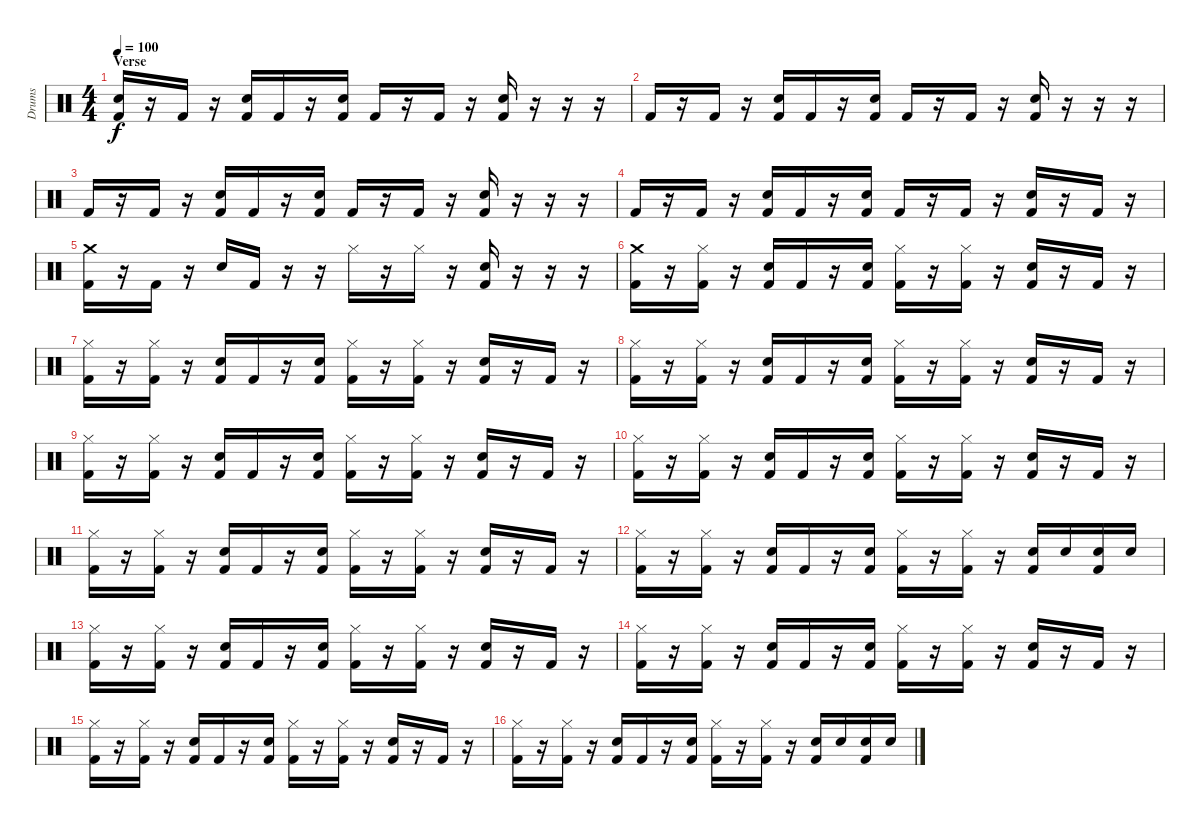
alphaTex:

\track ("Drums" "Drums") {instrument percussion}
\staff {score}
\articulation defaults
\ts (4 4)
\section ("" "Verse")
\tempo 100
\clef neutral
\ks c
("Snare (hit) 2" "Kick (hit) 2").16{dy f} r.16 "Kick (hit) 2".16 r.16 ("Snare (hit) 2" "Kick (hit) 2").16 "Kick (hit) 2".16 r.16 ("Snare (hit) 2" "Kick (hit) 2").16 "Kick (hit) 2".16 r.16 "Kick (hit) 2".16 r.16 ("Snare (hit) 2" "Kick (hit) 2").16 r.16 r.16 r.16 |
"Kick (hit) 2".16 r.16 "Kick (hit) 2".16 r.16 ("Snare (hit) 2" "Kick (hit) 2").16 "Kick (hit) 2".16 r.16 ("Snare (hit) 2" "Kick (hit) 2").16 "Kick (hit) 2".16 r.16 "Kick (hit) 2".16 r.16 ("Snare (hit) 2" "Kick (hit) 2").16 r.16 r.16 r.16 |
"Kick (hit) 2".16 r.16 "Kick (hit) 2".16 r.16 ("Snare (hit) 2" "Kick (hit) 2").16 "Kick (hit) 2".16 r.16 ("Snare (hit) 2" "Kick (hit) 2").16 "Kick (hit) 2".16 r.16 "Kick (hit) 2".16 r.16 ("Snare (hit) 2" "Kick (hit) 2").16 r.16 r.16 r.16 |
"Kick (hit) 2".16 r.16 "Kick (hit) 2".16 r.16 ("Snare (hit) 2" "Kick (hit) 2").16 "Kick (hit) 2".16 r.16 ("Snare (hit) 2" "Kick (hit) 2").16 "Kick (hit) 2".16 r.16 "Kick (hit) 2".16 r.16 ("Snare (hit) 2" "Kick (hit) 2").16 r.16 "Kick (hit) 2".16 r.16 |
("Crash medium (hit)" "Kick (hit) 2").16 r.16 "Kick (hit) 2".16 r.16 "Snare (hit) 2".16 "Kick (hit) 2".16 r.16 r.16 "Hi-Hat (closed)".16 r.16 "Hi-Hat (closed)".16 r.16 ("Snare (hit) 2" "Kick (hit) 2").16 r.16 r.16 r.16 |
("Crash medium (hit)" "Kick (hit) 2").16 r.16 ("Hi-Hat (closed)" "Kick (hit) 2").16 r.16 ("Snare (hit) 2" "Kick (hit) 2").16 "Kick (hit) 2".16 r.16 ("Snare (hit) 2" "Kick (hit) 2").16 ("Hi-Hat (closed)" "Kick (hit) 2").16 r.16 ("Hi-Hat (closed)" "Kick (hit) 2").16 r.16 ("Snare (hit) 2" "Kick (hit) 2").16 r.16 "Kick (hit) 2".16 r.16 |
("Hi-Hat (closed)" "Kick (hit) 2").16 r.16 ("Hi-Hat (closed)" "Kick (hit) 2").16 r.16 ("Snare (hit) 2" "Kick (hit) 2").16 "Kick (hit) 2".16 r.16 ("Snare (hit) 2" "Kick (hit) 2").16 ("Hi-Hat (closed)" "Kick (hit) 2").16 r.16 ("Hi-Hat (closed)" "Kick (hit) 2").16 r.16 ("Snare (hit) 2" "Kick (hit) 2").16 r.16 "Kick (hit) 2".16 r.16 |
("Hi-Hat (closed)" "Kick (hit) 2").16 r.16 ("Hi-Hat (closed)" "Kick (hit) 2").16 r.16 ("Snare (hit) 2" "Kick (hit) 2").16 "Kick (hit) 2".16 r.16 ("Snare (hit) 2" "Kick (hit) 2").16 ("Hi-Hat (closed)" "Kick (hit) 2").16 r.16 ("Hi-Hat (closed)" "Kick (hit) 2").16 r.16 ("Snare (hit) 2" "Kick (hit) 2").16 r.16 "Kick (hit) 2".16 r.16 |
("Hi-Hat (closed)" "Kick (hit) 2").16 r.16 ("Hi-Hat (closed)" "Kick (hit) 2").16 r.16 ("Snare (hit) 2" "Kick (hit) 2").16 "Kick (hit) 2".16 r.16 ("Snare (hit) 2" "Kick (hit) 2").16 ("Hi-Hat (closed)" "Kick (hit) 2").16 r.16 ("Hi-Hat (closed)" "Kick (hit) 2").16 r.16 ("Snare (hit) 2" "Kick (hit) 2").16 r.16 "Kick (hit) 2".16 r.16 |
("Hi-Hat (closed)" "Kick (hit) 2").16 r.16 ("Hi-Hat (closed)" "Kick (hit) 2").16 r.16 ("Snare (hit) 2" "Kick (hit) 2").16 "Kick (hit) 2".16 r.16 ("Snare (hit) 2" "Kick (hit) 2").16 ("Hi-Hat (closed)" "Kick (hit) 2").16 r.16 ("Hi-Hat (closed)" "Kick (hit) 2").16 r.16 ("Snare (hit) 2" "Kick (hit) 2").16 r.16 "Kick (hit) 2".16 r.16 |
("Hi-Hat (closed)" "Kick (hit) 2").16 r.16 ("Hi-Hat (closed)" "Kick (hit) 2").16 r.16 ("Snare (hit) 2" "Kick (hit) 2").16 "Kick (hit) 2".16 r.16 ("Snare (hit) 2" "Kick (hit) 2").16 ("Hi-Hat (closed)" "Kick (hit) 2").16 r.16 ("Hi-Hat (closed)" "Kick (hit) 2").16 r.16 ("Snare (hit) 2" "Kick (hit) 2").16 r.16 "Kick (hit) 2".16 r.16 |
("Hi-Hat (closed)" "Kick (hit) 2").16 r.16 ("Hi-Hat (closed)" "Kick (hit) 2").16 r.16 ("Snare (hit) 2" "Kick (hit) 2").16 "Kick (hit) 2".16 r.16 ("Snare (hit) 2" "Kick (hit) 2").16 ("Hi-Hat (closed)" "Kick (hit) 2").16 r.16 ("Hi-Hat (closed)" "Kick (hit) 2").16 r.16 ("Snare (hit) 2" "Kick (hit) 2").16 "Snare (hit) 2".16 ("Snare (hit) 2" "Kick (hit) 2").16 "Snare (hit) 2".16 |
("Hi-Hat (closed)" "Kick (hit) 2").16 r.16 ("Hi-Hat (closed)" "Kick (hit) 2").16 r.16 ("Snare (hit) 2" "Kick (hit) 2").16 "Kick (hit) 2".16 r.16 ("Snare (hit) 2" "Kick (hit) 2").16 ("Hi-Hat (closed)" "Kick (hit) 2").16 r.16 ("Hi-Hat (closed)" "Kick (hit) 2").16 r.16 ("Snare (hit) 2" "Kick (hit) 2").16 r.16 "Kick (hit) 2".16 r.16 |
("Hi-Hat (closed)" "Kick (hit) 2").16 r.16 ("Hi-Hat (closed)" "Kick (hit) 2").16 r.16 ("Snare (hit) 2" "Kick (hit) 2").16 "Kick (hit) 2".16 r.16 ("Snare (hit) 2" "Kick (hit) 2").16 ("Hi-Hat (closed)" "Kick (hit) 2").16 r.16 ("Hi-Hat (closed)" "Kick (hit) 2").16 r.16 ("Snare (hit) 2" "Kick (hit) 2").16 r.16 "Kick (hit) 2".16 r.16 |
("Hi-Hat (closed)" "Kick (hit) 2").16 r.16 ("Hi-Hat (closed)" "Kick (hit) 2").16 r.16 ("Snare (hit) 2" "Kick (hit) 2").16 "Kick (hit) 2".16 r.16 ("Snare (hit) 2" "Kick (hit) 2").16 ("Hi-Hat (closed)" "Kick (hit) 2").16 r.16 ("Hi-Hat (closed)" "Kick (hit) 2").16 r.16 ("Snare (hit) 2" "Kick (hit) 2").16 r.16 "Kick (hit) 2".16 r.16 |
("Hi-Hat (closed)" "Kick (hit) 2").16 r.16 ("Hi-Hat (closed)" "Kick (hit) 2").16 r.16 ("Snare (hit) 2" "Kick (hit) 2").16 "Kick (hit) 2".16 r.16 ("Snare (hit) 2" "Kick (hit) 2").16 ("Hi-Hat (closed)" "Kick (hit) 2").16 r.16 ("Hi-Hat (closed)" "Kick (hit) 2").16 r.16 ("Snare (hit) 2" "Kick (hit) 2").16 "Snare (hit) 2".16 ("Snare (hit) 2" "Kick (hit) 2").16 "Snare (hit) 2".16
